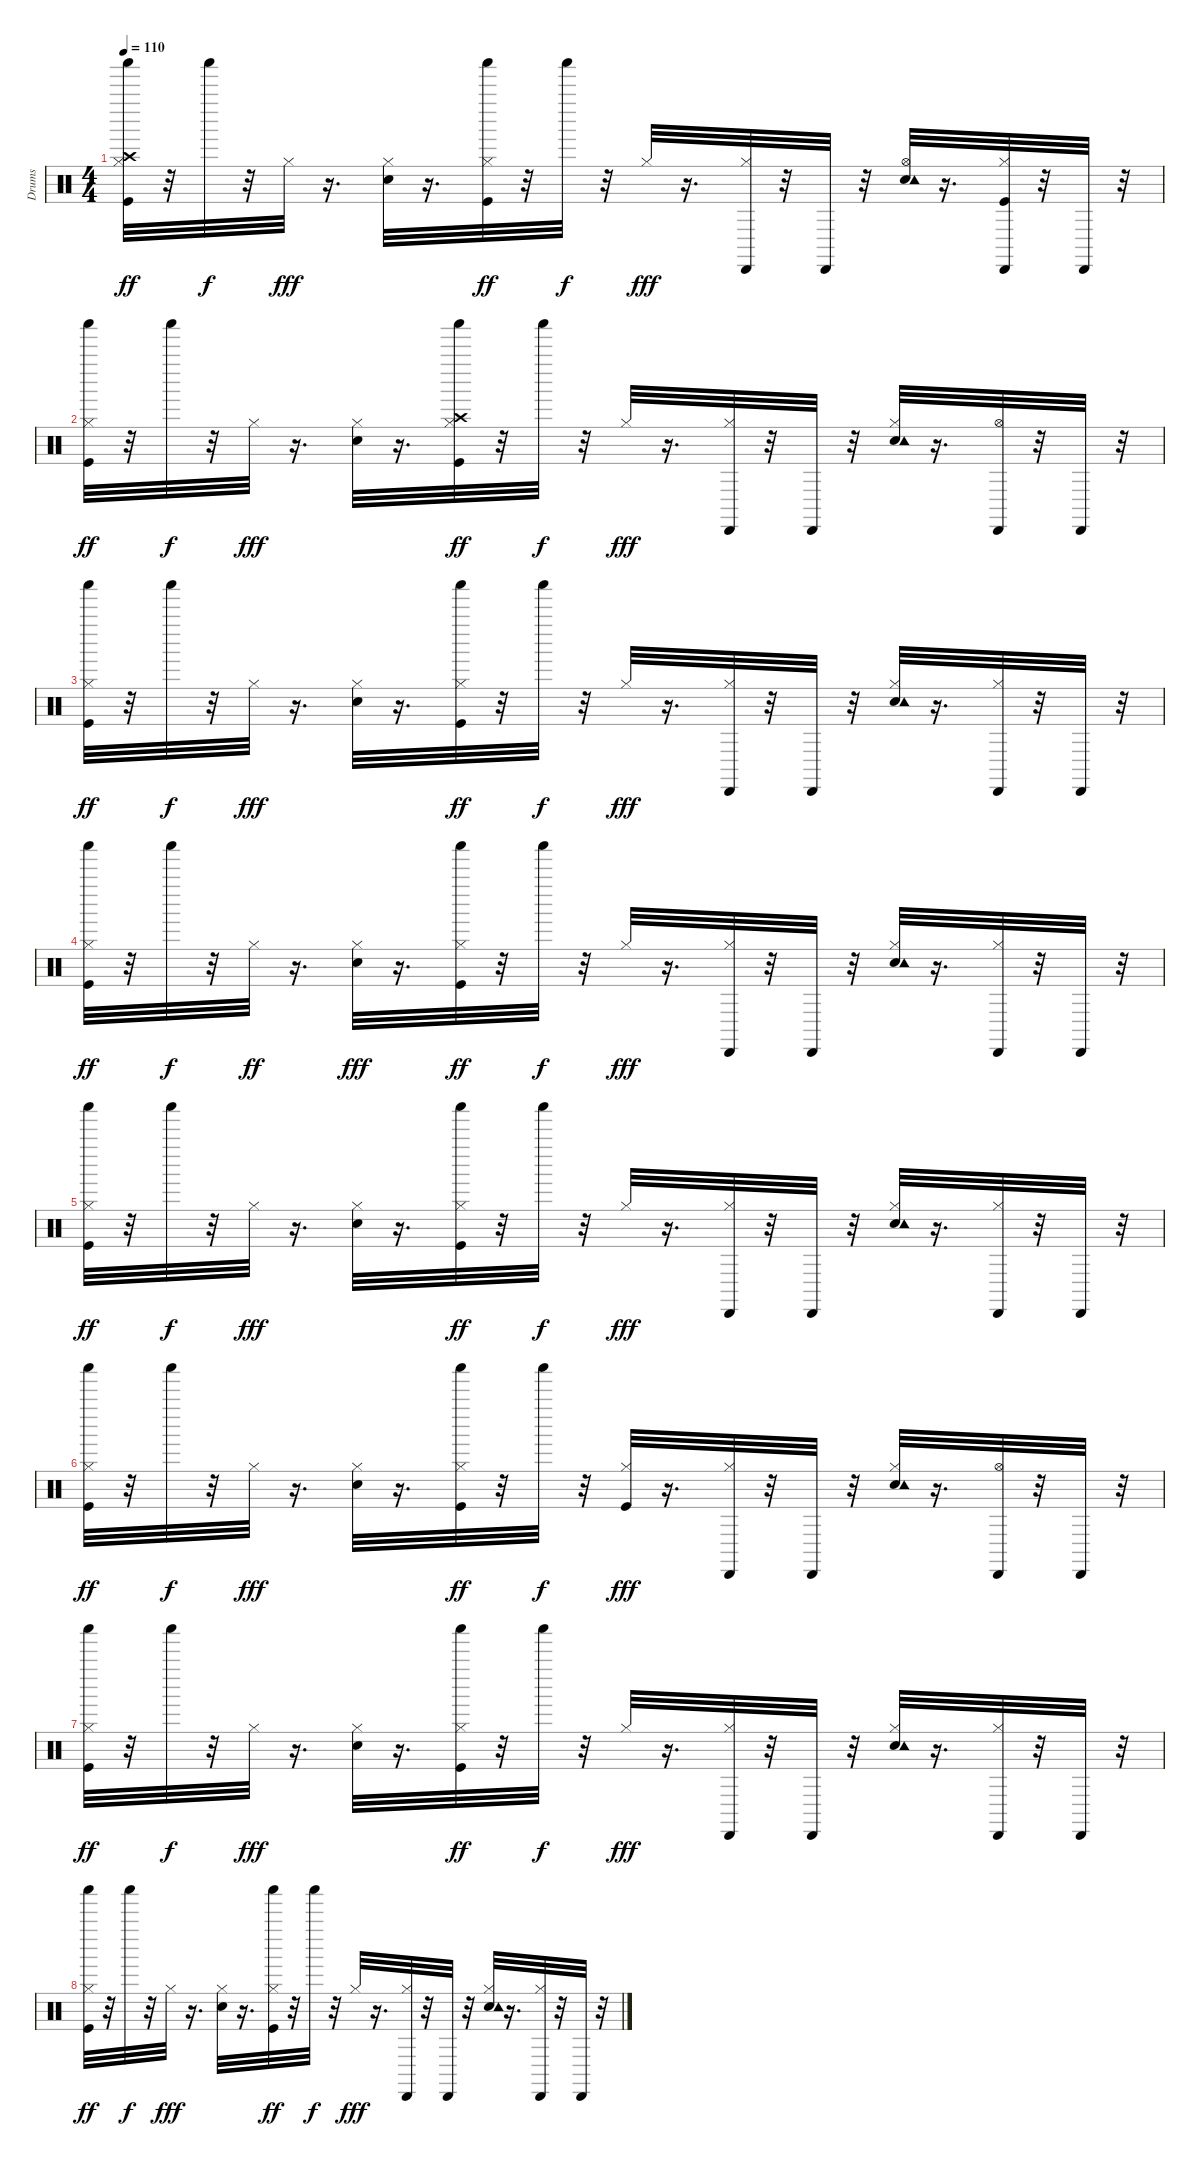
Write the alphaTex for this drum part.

\track ("Drums               " "Drums     ") {instrument percussion}
\staff {score}
\articulation defaults
\ts (4 4)
\tempo 110
\clef neutral
\ks c
("Kick (hit)" "Hi-Hat (closed)" "Crash high (hit)" "Shaker (hit)").32{dy ff} r.32 "Shaker (hit)".32{dy f} r.32 "Hi-Hat (closed)".32{dy fff} r.16{d} ("Electric Snare (hit)" "Hi-Hat (closed)").32 r.16{d} ("Kick (hit)" "Hi-Hat (closed)" "Shaker (hit)").32{dy ff} r.32 "Shaker (hit)".32{dy f} r.32 "Hi-Hat (closed)".32{dy fff} r.16{d} ("Hi-Hat (closed)" "Cabasa (hit)").32 r.32 "Cabasa (hit)".32 r.32 ("Electric Snare (hit)" "Hi-Hat (open)" "Tambourine (hit)").32 r.16{d} ("Kick (hit)" "Hi-Hat (closed)" "Cabasa (hit)").32 r.32 "Cabasa (hit)".32 r.32 |
("Kick (hit)" "Hi-Hat (closed)" "Shaker (hit)").32{dy ff} r.32 "Shaker (hit)".32{dy f} r.32 "Hi-Hat (closed)".32{dy fff} r.16{d} ("Electric Snare (hit)" "Hi-Hat (closed)").32 r.16{d} ("Kick (hit)" "Hi-Hat (closed)" "Crash high (hit)" "Shaker (hit)").32{dy ff} r.32 "Shaker (hit)".32{dy f} r.32 "Hi-Hat (closed)".32{dy fff} r.16{d} ("Hi-Hat (closed)" "Cabasa (hit)").32 r.32 "Cabasa (hit)".32 r.32 ("Electric Snare (hit)" "Hi-Hat (closed)" "Tambourine (hit)").32 r.16{d} ("Hi-Hat (open)" "Cabasa (hit)").32 r.32 "Cabasa (hit)".32 r.32 |
("Kick (hit)" "Hi-Hat (closed)" "Shaker (hit)").32{dy ff} r.32 "Shaker (hit)".32{dy f} r.32 "Hi-Hat (closed)".32{dy fff} r.16{d} ("Electric Snare (hit)" "Hi-Hat (closed)").32 r.16{d} ("Kick (hit)" "Hi-Hat (closed)" "Shaker (hit)").32{dy ff} r.32 "Shaker (hit)".32{dy f} r.32 "Hi-Hat (closed)".32{dy fff} r.16{d} ("Hi-Hat (closed)" "Cabasa (hit)").32 r.32 "Cabasa (hit)".32 r.32 ("Electric Snare (hit)" "Hi-Hat (closed)" "Tambourine (hit)").32 r.16{d} ("Hi-Hat (closed)" "Cabasa (hit)").32 r.32 "Cabasa (hit)".32 r.32 |
("Kick (hit)" "Hi-Hat (closed)" "Shaker (hit)").32{dy ff} r.32 "Shaker (hit)".32{dy f} r.32 "Hi-Hat (closed)".32{dy ff} r.16{d} ("Electric Snare (hit)" "Hi-Hat (closed)").32{dy fff} r.16{d} ("Kick (hit)" "Hi-Hat (closed)" "Shaker (hit)").32{dy ff} r.32 "Shaker (hit)".32{dy f} r.32 "Hi-Hat (closed)".32{dy fff} r.16{d} ("Hi-Hat (closed)" "Cabasa (hit)").32 r.32 "Cabasa (hit)".32 r.32 ("Electric Snare (hit)" "Hi-Hat (closed)" "Tambourine (hit)").32 r.16{d} ("Hi-Hat (closed)" "Cabasa (hit)").32 r.32 "Cabasa (hit)".32 r.32 |
("Kick (hit)" "Hi-Hat (closed)" "Shaker (hit)").32{dy ff} r.32 "Shaker (hit)".32{dy f} r.32 "Hi-Hat (closed)".32{dy fff} r.16{d} ("Electric Snare (hit)" "Hi-Hat (closed)").32 r.16{d} ("Kick (hit)" "Hi-Hat (closed)" "Shaker (hit)").32{dy ff} r.32 "Shaker (hit)".32{dy f} r.32 "Hi-Hat (closed)".32{dy fff} r.16{d} ("Hi-Hat (closed)" "Cabasa (hit)").32 r.32 "Cabasa (hit)".32 r.32 ("Electric Snare (hit)" "Hi-Hat (closed)" "Tambourine (hit)").32 r.16{d} ("Hi-Hat (closed)" "Cabasa (hit)").32 r.32 "Cabasa (hit)".32 r.32 |
("Kick (hit)" "Hi-Hat (closed)" "Shaker (hit)").32{dy ff} r.32 "Shaker (hit)".32{dy f} r.32 "Hi-Hat (closed)".32{dy fff} r.16{d} ("Electric Snare (hit)" "Hi-Hat (closed)").32 r.16{d} ("Kick (hit)" "Hi-Hat (closed)" "Shaker (hit)").32{dy ff} r.32 "Shaker (hit)".32{dy f} r.32 ("Kick (hit)" "Hi-Hat (closed)").32{dy fff} r.16{d} ("Hi-Hat (closed)" "Cabasa (hit)").32 r.32 "Cabasa (hit)".32 r.32 ("Electric Snare (hit)" "Hi-Hat (closed)" "Tambourine (hit)").32 r.16{d} ("Hi-Hat (open)" "Cabasa (hit)").32 r.32 "Cabasa (hit)".32 r.32 |
("Kick (hit)" "Hi-Hat (closed)" "Shaker (hit)").32{dy ff} r.32 "Shaker (hit)".32{dy f} r.32 "Hi-Hat (closed)".32{dy fff} r.16{d} ("Electric Snare (hit)" "Hi-Hat (closed)").32 r.16{d} ("Kick (hit)" "Hi-Hat (closed)" "Shaker (hit)").32{dy ff} r.32 "Shaker (hit)".32{dy f} r.32 "Hi-Hat (closed)".32{dy fff} r.16{d} ("Hi-Hat (closed)" "Cabasa (hit)").32 r.32 "Cabasa (hit)".32 r.32 ("Electric Snare (hit)" "Hi-Hat (closed)" "Tambourine (hit)").32 r.16{d} ("Hi-Hat (closed)" "Cabasa (hit)").32 r.32 "Cabasa (hit)".32 r.32 |
("Kick (hit)" "Hi-Hat (closed)" "Shaker (hit)").32{dy ff} r.32 "Shaker (hit)".32{dy f} r.32 "Hi-Hat (closed)".32{dy fff} r.16{d} ("Electric Snare (hit)" "Hi-Hat (closed)").32 r.16{d} ("Kick (hit)" "Hi-Hat (closed)" "Shaker (hit)").32{dy ff} r.32 "Shaker (hit)".32{dy f} r.32 "Hi-Hat (closed)".32{dy fff} r.16{d} ("Hi-Hat (closed)" "Cabasa (hit)").32 r.32 "Cabasa (hit)".32 r.32 ("Electric Snare (hit)" "Hi-Hat (closed)" "Tambourine (hit)").32 r.16{d} ("Hi-Hat (closed)" "Cabasa (hit)").32 r.32 "Cabasa (hit)".32 r.32
